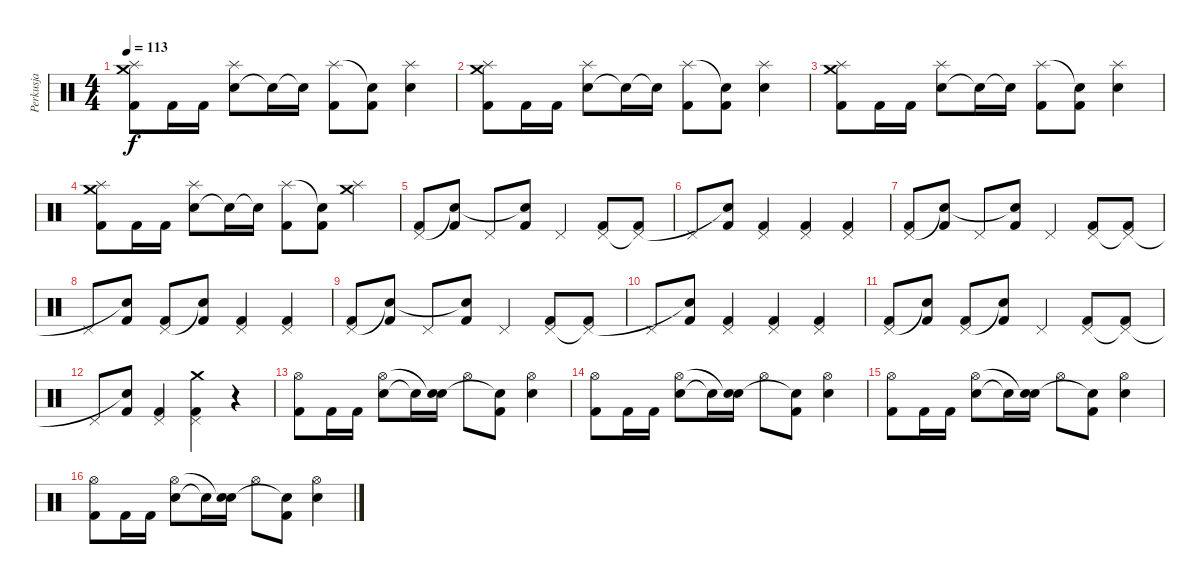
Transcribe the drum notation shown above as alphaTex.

\track ("Perkusja" "Perkusja") {instrument percussion}
\staff {score}
\articulation defaults
\ts (4 4)
\tempo 113
\clef neutral
\ks c
("Crash medium (hit)" "Kick (hit) 2" "Splash (hit)").8{dy f} "Kick (hit) 2".16 "Kick (hit) 2".16 ("Snare (hit) 2" "Splash (hit)").8 "Snare (hit)"{t}.16 "Snare (hit)"{t}.16 ("Kick (hit) 2" "Splash (hit)").8 ("Kick (hit) 2" "Snare (hit)"{t}).8 ("Snare (hit) 2" "Splash (hit)").4 |
("Crash medium (hit)" "Kick (hit) 2" "Splash (hit)").8 "Kick (hit) 2".16 "Kick (hit) 2".16 ("Snare (hit) 2" "Splash (hit)").8 "Snare (hit)"{t}.16 "Snare (hit)"{t}.16 ("Kick (hit) 2" "Splash (hit)").8 ("Kick (hit) 2" "Snare (hit)"{t}).8 ("Snare (hit) 2" "Splash (hit)").4 |
("Crash medium (hit)" "Kick (hit) 2" "Splash (hit)").8 "Kick (hit) 2".16 "Kick (hit) 2".16 ("Snare (hit) 2" "Splash (hit)").8 "Snare (hit)"{t}.16 "Snare (hit)"{t}.16 ("Kick (hit) 2" "Splash (hit)").8 ("Kick (hit) 2" "Snare (hit)"{t}).8 ("Snare (hit) 2" "Splash (hit)").4 |
("Crash medium (hit)" "Kick (hit) 2" "Splash (hit)").8 "Kick (hit) 2".16 "Kick (hit) 2".16 ("Snare (hit) 2" "Splash (hit)").8 "Snare (hit)"{t}.16 "Snare (hit)"{t}.16 ("Kick (hit) 2" "Splash (hit)").8 ("Kick (hit) 2" "Snare (hit)"{t}).8 ("Crash medium (hit)" "Splash (hit)").4 |
("Kick (hit) 2" "Pedal Hi-Hat (hit)").8 ("Kick (hit) 2" "Snare (hit)"{t}).8 "Pedal Hi-Hat (hit)".8 ("Kick (hit) 2" "Snare (hit)"{t}).8 "Pedal Hi-Hat (hit)".4 ("Kick (hit) 2" "Pedal Hi-Hat (hit)").8 ("Kick (hit) 2" "Pedal Hi-Hat (hit)"{t}).8 |
"Pedal Hi-Hat (hit)".8 ("Kick (hit) 2" "Snare (hit)"{t}).8 ("Kick (hit) 2" "Pedal Hi-Hat (hit)").4 ("Kick (hit) 2" "Pedal Hi-Hat (hit)").4 ("Kick (hit) 2" "Pedal Hi-Hat (hit)").4 |
("Kick (hit) 2" "Pedal Hi-Hat (hit)").8 ("Kick (hit) 2" "Snare (hit)"{t}).8 "Pedal Hi-Hat (hit)".8 ("Kick (hit) 2" "Snare (hit)"{t}).8 "Pedal Hi-Hat (hit)".4 ("Kick (hit) 2" "Pedal Hi-Hat (hit)").8 ("Kick (hit) 2" "Pedal Hi-Hat (hit)"{t}).8 |
"Pedal Hi-Hat (hit)".8 ("Kick (hit) 2" "Snare (hit)"{t}).8 ("Kick (hit) 2" "Pedal Hi-Hat (hit)").8 ("Kick (hit) 2" "Snare (hit)"{t}).8 ("Kick (hit) 2" "Pedal Hi-Hat (hit)").4 ("Kick (hit) 2" "Pedal Hi-Hat (hit)").4 |
("Kick (hit) 2" "Pedal Hi-Hat (hit)").8 ("Kick (hit) 2" "Snare (hit)"{t}).8 "Pedal Hi-Hat (hit)".8 ("Kick (hit) 2" "Snare (hit)"{t}).8 "Pedal Hi-Hat (hit)".4 ("Kick (hit) 2" "Pedal Hi-Hat (hit)").8 ("Kick (hit) 2" "Pedal Hi-Hat (hit)"{t}).8 |
"Pedal Hi-Hat (hit)".8 ("Kick (hit) 2" "Snare (hit)"{t}).8 ("Kick (hit) 2" "Pedal Hi-Hat (hit)").4 ("Kick (hit) 2" "Pedal Hi-Hat (hit)").4 ("Kick (hit) 2" "Pedal Hi-Hat (hit)").4 |
("Kick (hit) 2" "Pedal Hi-Hat (hit)").8 ("Kick (hit) 2" "Snare (hit)"{t}).8 ("Kick (hit) 2" "Pedal Hi-Hat (hit)").8 ("Kick (hit) 2" "Snare (hit)"{t}).8 "Pedal Hi-Hat (hit)".4 ("Kick (hit) 2" "Pedal Hi-Hat (hit)").8 ("Kick (hit) 2" "Pedal Hi-Hat (hit)"{t}).8 |
"Pedal Hi-Hat (hit)".8 ("Kick (hit) 2" "Snare (hit)"{t}).8 ("Kick (hit) 2" "Pedal Hi-Hat (hit)").4 ("Crash medium (hit)" "Kick (hit) 2" "Pedal Hi-Hat (hit)").4 r.4 |
("Kick (hit) 2" "Hi-Hat (open)").8 "Kick (hit) 2".16 "Kick (hit) 2".16 ("Snare (hit) 2" "Hi-Hat (open)").8 "Snare (hit)"{t}.16 ("Snare (hit) 2" "Snare (hit)"{t}).16 "Hi-Hat (open)".8 ("Kick (hit) 2" "Snare (hit)"{t}).8 ("Snare (hit) 2" "Hi-Hat (open)").4 |
("Kick (hit) 2" "Hi-Hat (open)").8 "Kick (hit) 2".16 "Kick (hit) 2".16 ("Snare (hit) 2" "Hi-Hat (open)").8 "Snare (hit)"{t}.16 ("Snare (hit) 2" "Snare (hit)"{t}).16 "Hi-Hat (open)".8 ("Kick (hit) 2" "Snare (hit)"{t}).8 ("Snare (hit) 2" "Hi-Hat (open)").4 |
("Kick (hit) 2" "Hi-Hat (open)").8 "Kick (hit) 2".16 "Kick (hit) 2".16 ("Snare (hit) 2" "Hi-Hat (open)").8 "Snare (hit)"{t}.16 ("Snare (hit) 2" "Snare (hit)"{t}).16 "Hi-Hat (open)".8 ("Kick (hit) 2" "Snare (hit)"{t}).8 ("Snare (hit) 2" "Hi-Hat (open)").4 |
("Kick (hit) 2" "Hi-Hat (open)").8 "Kick (hit) 2".16 "Kick (hit) 2".16 ("Snare (hit) 2" "Hi-Hat (open)").8 "Snare (hit)"{t}.16 ("Snare (hit) 2" "Snare (hit)"{t}).16 "Hi-Hat (open)".8 ("Kick (hit) 2" "Snare (hit)"{t}).8 ("Snare (hit) 2" "Hi-Hat (open)").4
